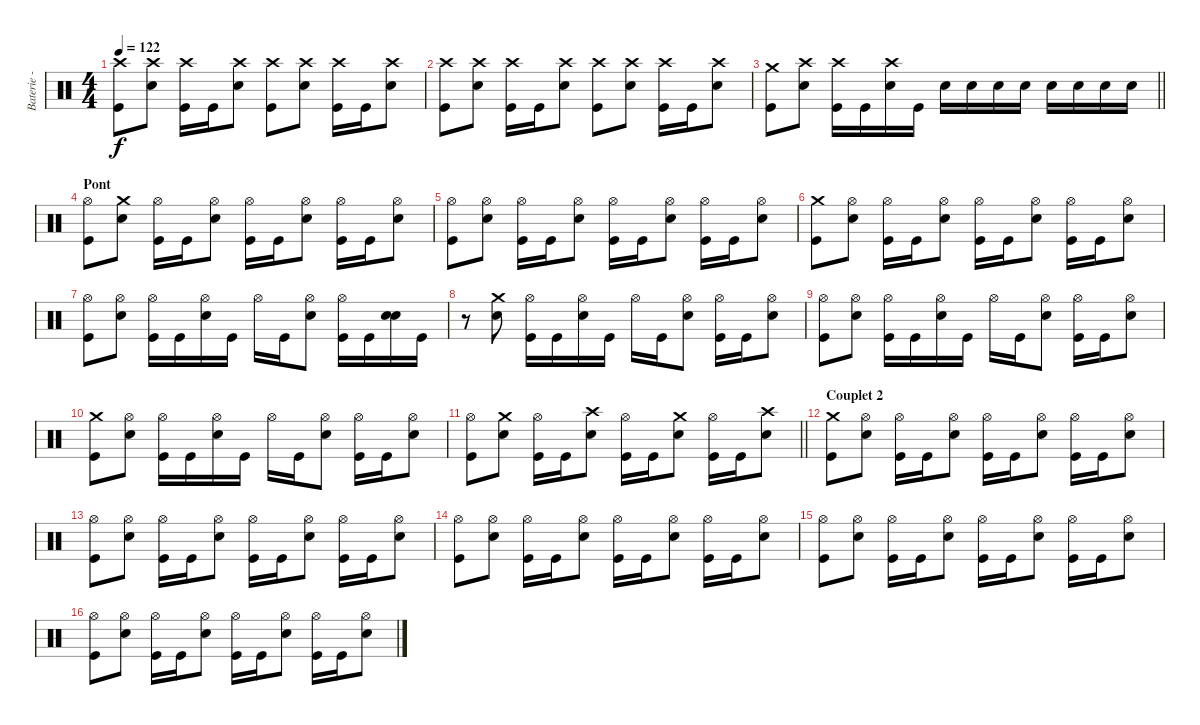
\track ("Baterie - Alex" "Baterie - ") {instrument percussion}
\staff {score}
\articulation defaults
\ts (4 4)
\tempo 122
\clef neutral
\ks c
("Crash high (hit)" "Kick (hit)").8{dy f} ("Crash high (hit)" "Electric Snare (hit)").8 ("Crash high (hit)" "Kick (hit)").16 "Kick (hit)".16 ("Crash high (hit)" "Electric Snare (hit)").8 ("Crash high (hit)" "Kick (hit)").8 ("Crash high (hit)" "Electric Snare (hit)").8 ("Crash high (hit)" "Kick (hit)").16 "Kick (hit)".16 ("Crash high (hit)" "Electric Snare (hit)").8 |
("Crash high (hit)" "Kick (hit)").8 ("Crash high (hit)" "Electric Snare (hit)").8 ("Crash high (hit)" "Kick (hit)").16 "Kick (hit)".16 ("Crash high (hit)" "Electric Snare (hit)").8 ("Crash high (hit)" "Kick (hit)").8 ("Crash high (hit)" "Electric Snare (hit)").8 ("Crash high (hit)" "Kick (hit)").16 "Kick (hit)".16 ("Crash high (hit)" "Electric Snare (hit)").8 |
\barLineRight lightlight
("Crash medium (hit)" "Kick (hit)").8 ("Crash high (hit)" "Electric Snare (hit)").8 ("Crash high (hit)" "Kick (hit)").16 "Kick (hit)".16 ("Crash high (hit)" "Electric Snare (hit)").16 "Kick (hit)".16 "Electric Snare (hit)".16 "Electric Snare (hit)".16 "Electric Snare (hit)".16 "Electric Snare (hit)".16 "Electric Snare (hit)".16 "Electric Snare (hit)".16 "Electric Snare (hit)".16 "Electric Snare (hit)".16 |
\section ("" "Pont")
("Hi-Hat (open)" "Kick (hit)").8 ("Crash medium (hit)" "Electric Snare (hit)").8 ("Hi-Hat (open)" "Kick (hit)").16 "Kick (hit)".16 ("Hi-Hat (open)" "Electric Snare (hit)").8 ("Hi-Hat (open)" "Kick (hit)").16 "Kick (hit)".16 ("Hi-Hat (open)" "Electric Snare (hit)").8 ("Hi-Hat (open)" "Kick (hit)").16 "Kick (hit)".16 ("Hi-Hat (open)" "Electric Snare (hit)").8 |
("Hi-Hat (open)" "Kick (hit)").8 ("Hi-Hat (open)" "Electric Snare (hit)").8 ("Hi-Hat (open)" "Kick (hit)").16 "Kick (hit)".16 ("Hi-Hat (open)" "Electric Snare (hit)").8 ("Hi-Hat (open)" "Kick (hit)").16 "Kick (hit)".16 ("Hi-Hat (open)" "Electric Snare (hit)").8 ("Hi-Hat (open)" "Kick (hit)").16 "Kick (hit)".16 ("Hi-Hat (open)" "Electric Snare (hit)").8 |
("Crash medium (hit)" "Kick (hit)").8 ("Hi-Hat (open)" "Electric Snare (hit)").8 ("Hi-Hat (open)" "Kick (hit)").16 "Kick (hit)".16 ("Hi-Hat (open)" "Electric Snare (hit)").8 ("Hi-Hat (open)" "Kick (hit)").16 "Kick (hit)".16 ("Hi-Hat (open)" "Electric Snare (hit)").8 ("Hi-Hat (open)" "Kick (hit)").16 "Kick (hit)".16 ("Hi-Hat (open)" "Electric Snare (hit)").8 |
("Hi-Hat (open)" "Kick (hit)").8 ("Hi-Hat (open)" "Electric Snare (hit)").8 ("Hi-Hat (open)" "Kick (hit)").16 "Kick (hit)".16 ("Hi-Hat (open)" "Electric Snare (hit)").16 "Kick (hit)".16 "Hi-Hat (open)".16 "Kick (hit)".16 ("Hi-Hat (open)" "Electric Snare (hit)").8 ("Hi-Hat (open)" "Kick (hit)").16 "Kick (hit)".16 ("Electric Snare (hit)" "Electric Snare (hit)").16 "Kick (hit)".16 |
r.8 ("Crash medium (hit)" "Electric Snare (hit)").8 ("Hi-Hat (open)" "Kick (hit)").16 "Kick (hit)".16 ("Hi-Hat (open)" "Electric Snare (hit)").16 "Kick (hit)".16 "Hi-Hat (open)".16 "Kick (hit)".16 ("Hi-Hat (open)" "Electric Snare (hit)").8 ("Hi-Hat (open)" "Kick (hit)").16 "Kick (hit)".16 ("Hi-Hat (open)" "Electric Snare (hit)").8 |
("Hi-Hat (open)" "Kick (hit)").8 ("Hi-Hat (open)" "Electric Snare (hit)").8 ("Hi-Hat (open)" "Kick (hit)").16 "Kick (hit)".16 ("Hi-Hat (open)" "Electric Snare (hit)").16 "Kick (hit)".16 "Hi-Hat (open)".16 "Kick (hit)".16 ("Hi-Hat (open)" "Electric Snare (hit)").8 ("Hi-Hat (open)" "Kick (hit)").16 "Kick (hit)".16 ("Hi-Hat (open)" "Electric Snare (hit)").8 |
("Crash medium (hit)" "Kick (hit)").8 ("Hi-Hat (open)" "Electric Snare (hit)").8 ("Hi-Hat (open)" "Kick (hit)").16 "Kick (hit)".16 ("Hi-Hat (open)" "Electric Snare (hit)").16 "Kick (hit)".16 "Hi-Hat (open)".16 "Kick (hit)".16 ("Hi-Hat (open)" "Electric Snare (hit)").8 ("Hi-Hat (open)" "Kick (hit)").16 "Kick (hit)".16 ("Hi-Hat (open)" "Electric Snare (hit)").8 |
\barLineRight lightlight
("Hi-Hat (open)" "Kick (hit)").8 ("Crash medium (hit)" "Electric Snare (hit)").8 ("Hi-Hat (open)" "Kick (hit)").16 "Kick (hit)".16 ("Crash high (hit)" "Electric Snare (hit)").8 ("Hi-Hat (open)" "Kick (hit)").16 "Kick (hit)".16 ("Crash medium (hit)" "Electric Snare (hit)").8 ("Hi-Hat (open)" "Kick (hit)").16 "Kick (hit)".16 ("Crash high (hit)" "Electric Snare (hit)").8 |
\section ("" "Couplet 2")
("Crash medium (hit)" "Kick (hit)").8 ("Hi-Hat (open)" "Electric Snare (hit)").8 ("Hi-Hat (open)" "Kick (hit)").16 "Kick (hit)".16 ("Hi-Hat (open)" "Electric Snare (hit)").8 ("Hi-Hat (open)" "Kick (hit)").16 "Kick (hit)".16 ("Hi-Hat (open)" "Electric Snare (hit)").8 ("Hi-Hat (open)" "Kick (hit)").16 "Kick (hit)".16 ("Hi-Hat (open)" "Electric Snare (hit)").8 |
("Hi-Hat (open)" "Kick (hit)").8 ("Hi-Hat (open)" "Electric Snare (hit)").8 ("Hi-Hat (open)" "Kick (hit)").16 "Kick (hit)".16 ("Hi-Hat (open)" "Electric Snare (hit)").8 ("Hi-Hat (open)" "Kick (hit)").16 "Kick (hit)".16 ("Hi-Hat (open)" "Electric Snare (hit)").8 ("Hi-Hat (open)" "Kick (hit)").16 "Kick (hit)".16 ("Hi-Hat (open)" "Electric Snare (hit)").8 |
("Hi-Hat (open)" "Kick (hit)").8 ("Hi-Hat (open)" "Electric Snare (hit)").8 ("Hi-Hat (open)" "Kick (hit)").16 "Kick (hit)".16 ("Hi-Hat (open)" "Electric Snare (hit)").8 ("Hi-Hat (open)" "Kick (hit)").16 "Kick (hit)".16 ("Hi-Hat (open)" "Electric Snare (hit)").8 ("Hi-Hat (open)" "Kick (hit)").16 "Kick (hit)".16 ("Hi-Hat (open)" "Electric Snare (hit)").8 |
("Hi-Hat (open)" "Kick (hit)").8 ("Hi-Hat (open)" "Electric Snare (hit)").8 ("Hi-Hat (open)" "Kick (hit)").16 "Kick (hit)".16 ("Hi-Hat (open)" "Electric Snare (hit)").8 ("Hi-Hat (open)" "Kick (hit)").16 "Kick (hit)".16 ("Hi-Hat (open)" "Electric Snare (hit)").8 ("Hi-Hat (open)" "Kick (hit)").16 "Kick (hit)".16 ("Hi-Hat (open)" "Electric Snare (hit)").8 |
("Hi-Hat (open)" "Kick (hit)").8 ("Hi-Hat (open)" "Electric Snare (hit)").8 ("Hi-Hat (open)" "Kick (hit)").16 "Kick (hit)".16 ("Hi-Hat (open)" "Electric Snare (hit)").8 ("Hi-Hat (open)" "Kick (hit)").16 "Kick (hit)".16 ("Hi-Hat (open)" "Electric Snare (hit)").8 ("Hi-Hat (open)" "Kick (hit)").16 "Kick (hit)".16 ("Hi-Hat (open)" "Electric Snare (hit)").8
